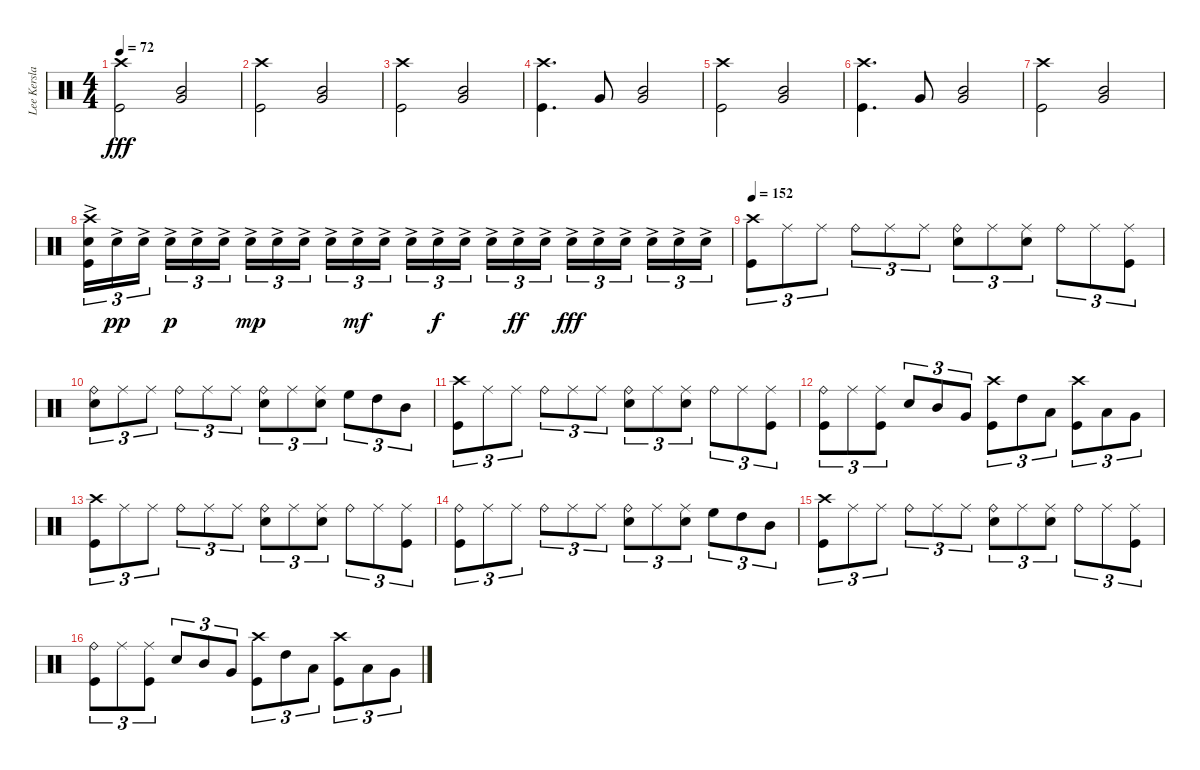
\track ("Lee Kerslake" "Lee Kersla") {instrument percussion}
\staff {score}
\articulation defaults
\ts (4 4)
\tempo 72
\clef neutral
\ks c
("Crash high (hit)" "Kick (hit)").2{dy fff volume 13} ("Mid Tom (hit)" "Very Low Tom (hit)").2 |
("Kick (hit)" "Crash high (hit)").2 ("Very Low Tom (hit)" "Mid Tom (hit)").2 |
("Crash high (hit)" "Kick (hit)").2 ("Mid Tom (hit)" "Very Low Tom (hit)").2 |
("Kick (hit)" "Crash high (hit)").4{d} "Very Low Tom (hit)".8 ("Very Low Tom (hit)" "Mid Tom (hit)").2 |
("Crash high (hit)" "Kick (hit)").2 ("Mid Tom (hit)" "Very Low Tom (hit)").2 |
("Kick (hit)" "Crash high (hit)").4{d} "Very Low Tom (hit)".8 ("Very Low Tom (hit)" "Mid Tom (hit)").2 |
("Crash high (hit)" "Kick (hit)").2 ("Mid Tom (hit)" "Very Low Tom (hit)").2 |
("Electric Snare (hit)"{ac} "Kick (hit)" "Crash high (hit)").16{tu (3 2) volume 16} "Electric Snare (hit)"{ac}.16{tu (3 2) dy pp} "Electric Snare (hit)"{ac}.16{tu (3 2) beam splitsecondary} "Electric Snare (hit)"{ac}.16{tu (3 2) dy p} "Electric Snare (hit)"{ac}.16{tu (3 2)} "Electric Snare (hit)"{ac}.16{tu (3 2)} "Electric Snare (hit)"{ac}.16{tu (3 2) dy mp} "Electric Snare (hit)"{ac}.16{tu (3 2)} "Electric Snare (hit)"{ac}.16{tu (3 2) beam splitsecondary} "Electric Snare (hit)"{ac}.16{tu (3 2)} "Electric Snare (hit)"{ac}.16{tu (3 2) dy mf} "Electric Snare (hit)"{ac}.16{tu (3 2)} "Electric Snare (hit)"{ac}.16{tu (3 2)} "Electric Snare (hit)"{ac}.16{tu (3 2) dy f} "Electric Snare (hit)"{ac}.16{tu (3 2) beam splitsecondary} "Electric Snare (hit)"{ac}.16{tu (3 2)} "Electric Snare (hit)"{ac}.16{tu (3 2) dy ff} "Electric Snare (hit)"{ac}.16{tu (3 2)} "Electric Snare (hit)"{ac}.16{tu (3 2) dy fff} "Electric Snare (hit)"{ac}.16{tu (3 2)} "Electric Snare (hit)"{ac}.16{tu (3 2) beam splitsecondary} "Electric Snare (hit)"{ac}.16{tu (3 2)} "Electric Snare (hit)"{ac}.16{tu (3 2)} "Electric Snare (hit)"{ac}.16{tu (3 2)} |
\tempo 152
("Kick (hit)" "Crash high (hit)").8{tu (3 2)} "Ride (middle)".8{tu (3 2)} "Ride (middle)".8{tu (3 2)} "Ride (bell)".8{tu (3 2)} "Ride (middle)".8{tu (3 2)} "Ride (middle)".8{tu (3 2)} ("Electric Snare (hit)" "Ride (bell)").8{tu (3 2)} "Ride (middle)".8{tu (3 2)} ("Ride (middle)" "Electric Snare (hit)").8{tu (3 2)} "Ride (bell)".8{tu (3 2)} "Ride (middle)".8{tu (3 2)} ("Ride (middle)" "Kick (hit)").8{tu (3 2)} |
("Snare (hit)" "Ride (bell)").8{tu (3 2)} "Ride (middle)".8{tu (3 2)} "Ride (middle)".8{tu (3 2)} "Ride (bell)".8{tu (3 2)} "Ride (middle)".8{tu (3 2)} "Ride (middle)".8{tu (3 2)} ("Electric Snare (hit)" "Ride (bell)").8{tu (3 2)} "Ride (middle)".8{tu (3 2)} ("Ride (middle)" "Electric Snare (hit)").8{tu (3 2)} "High Floor Tom (hit)".8{tu (3 2)} "High Tom (hit)".8{tu (3 2)} "Mid Tom (hit)".8{tu (3 2)} |
("Kick (hit)" "Crash high (hit)").8{tu (3 2)} "Ride (middle)".8{tu (3 2)} "Ride (middle)".8{tu (3 2)} "Ride (bell)".8{tu (3 2)} "Ride (middle)".8{tu (3 2)} "Ride (middle)".8{tu (3 2)} ("Electric Snare (hit)" "Ride (bell)").8{tu (3 2)} "Ride (middle)".8{tu (3 2)} ("Ride (middle)" "Electric Snare (hit)").8{tu (3 2)} "Ride (bell)".8{tu (3 2)} "Ride (middle)".8{tu (3 2)} ("Ride (middle)" "Kick (hit)").8{tu (3 2)} |
("Kick (hit)" "Ride (bell)").8{tu (3 2)} "Ride (middle)".8{tu (3 2)} ("Ride (middle)" "Kick (hit)").8{tu (3 2)} "Electric Snare (hit)".8{tu (3 2)} "Mid Tom (hit)".8{tu (3 2)} "Very Low Tom (hit)".8{tu (3 2)} ("Kick (hit)" "Crash high (hit)").8{tu (3 2)} "High Tom (hit)".8{tu (3 2)} "Low Tom (hit)".8{tu (3 2)} ("Crash high (hit)" "Kick (hit)").8{tu (3 2)} "Low Tom (hit)".8{tu (3 2)} "Very Low Tom (hit)".8{tu (3 2)} |
("Kick (hit)" "Crash high (hit)").8{tu (3 2)} "Ride (middle)".8{tu (3 2)} "Ride (middle)".8{tu (3 2)} "Ride (bell)".8{tu (3 2)} "Ride (middle)".8{tu (3 2)} "Ride (middle)".8{tu (3 2)} ("Electric Snare (hit)" "Ride (bell)").8{tu (3 2)} "Ride (middle)".8{tu (3 2)} ("Ride (middle)" "Electric Snare (hit)").8{tu (3 2)} "Ride (bell)".8{tu (3 2)} "Ride (middle)".8{tu (3 2)} ("Ride (middle)" "Kick (hit)").8{tu (3 2)} |
("Kick (hit)" "Ride (bell)").8{tu (3 2)} "Ride (middle)".8{tu (3 2)} "Ride (middle)".8{tu (3 2)} "Ride (bell)".8{tu (3 2)} "Ride (middle)".8{tu (3 2)} "Ride (middle)".8{tu (3 2)} ("Electric Snare (hit)" "Ride (bell)").8{tu (3 2)} "Ride (middle)".8{tu (3 2)} ("Ride (middle)" "Electric Snare (hit)").8{tu (3 2)} "High Floor Tom (hit)".8{tu (3 2)} "High Tom (hit)".8{tu (3 2)} "Mid Tom (hit)".8{tu (3 2)} |
("Kick (hit)" "Crash high (hit)").8{tu (3 2)} "Ride (middle)".8{tu (3 2)} "Ride (middle)".8{tu (3 2)} "Ride (bell)".8{tu (3 2)} "Ride (middle)".8{tu (3 2)} "Ride (middle)".8{tu (3 2)} ("Electric Snare (hit)" "Ride (bell)").8{tu (3 2)} "Ride (middle)".8{tu (3 2)} ("Ride (middle)" "Electric Snare (hit)").8{tu (3 2)} "Ride (bell)".8{tu (3 2)} "Ride (middle)".8{tu (3 2)} ("Ride (middle)" "Kick (hit)").8{tu (3 2)} |
("Kick (hit)" "Ride (bell)").8{tu (3 2)} "Ride (middle)".8{tu (3 2)} ("Ride (middle)" "Kick (hit)").8{tu (3 2)} "Electric Snare (hit)".8{tu (3 2)} "Mid Tom (hit)".8{tu (3 2)} "Very Low Tom (hit)".8{tu (3 2)} ("Kick (hit)" "Crash high (hit)").8{tu (3 2)} "High Tom (hit)".8{tu (3 2)} "Low Tom (hit)".8{tu (3 2)} ("Crash high (hit)" "Kick (hit)").8{tu (3 2)} "Low Tom (hit)".8{tu (3 2)} "Very Low Tom (hit)".8{tu (3 2)}
